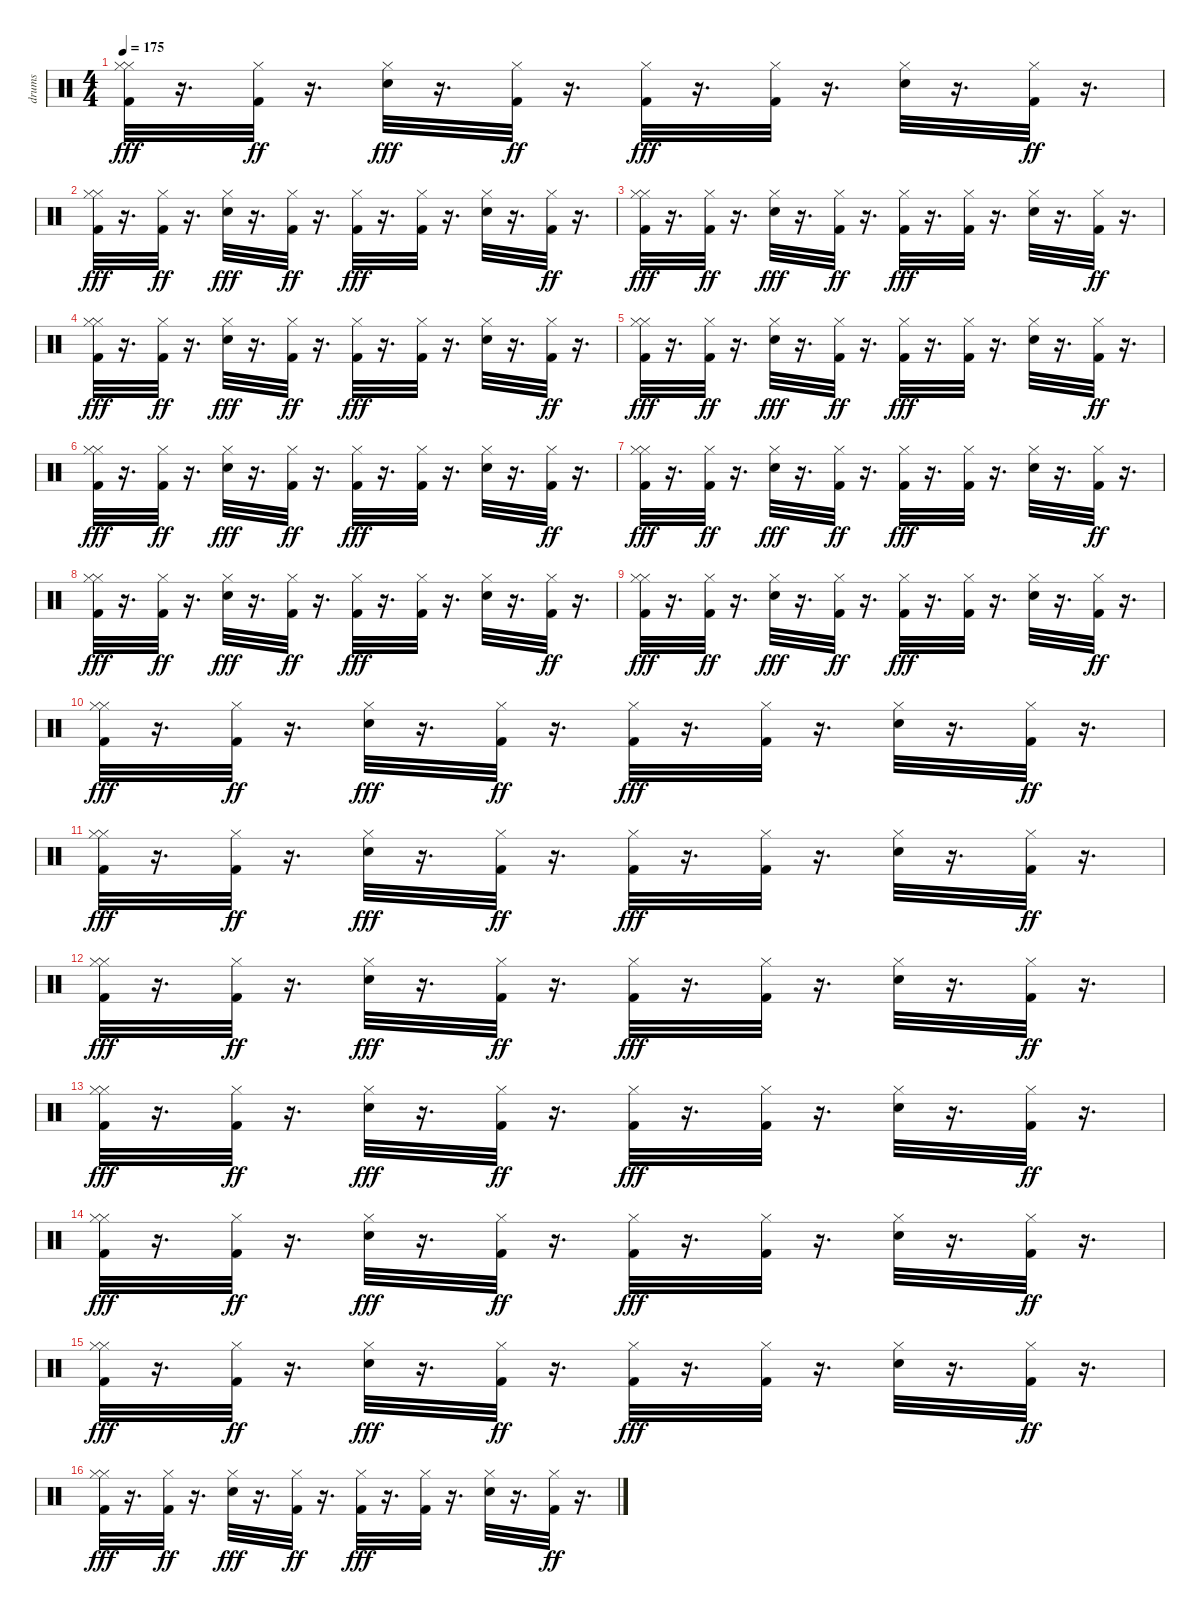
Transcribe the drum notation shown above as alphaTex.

\track ("drums" "drums") {instrument percussion}
\staff {score}
\articulation defaults
\ts (4 4)
\tempo 175
\clef neutral
\ks c
("Hi-Hat (closed)" "Hi-Hat (closed)" "Kick (hit) 2").32{dy fff} r.16{d} ("Hi-Hat (closed)" "Kick (hit) 2").32{dy ff} r.16{d} ("Hi-Hat (closed)" "Electric Snare (hit)").32{dy fff} r.16{d} ("Hi-Hat (closed)" "Kick (hit) 2").32{dy ff} r.16{d} ("Hi-Hat (closed)" "Kick (hit) 2").32{dy fff} r.16{d} ("Hi-Hat (closed)" "Kick (hit) 2").32 r.16{d} ("Hi-Hat (closed)" "Electric Snare (hit)").32 r.16{d} ("Hi-Hat (closed)" "Kick (hit) 2").32{dy ff} r.16{d} |
("Hi-Hat (closed)" "Hi-Hat (closed)" "Kick (hit) 2").32{dy fff} r.16{d} ("Hi-Hat (closed)" "Kick (hit) 2").32{dy ff} r.16{d} ("Hi-Hat (closed)" "Electric Snare (hit)").32{dy fff} r.16{d} ("Hi-Hat (closed)" "Kick (hit) 2").32{dy ff} r.16{d} ("Hi-Hat (closed)" "Kick (hit) 2").32{dy fff} r.16{d} ("Hi-Hat (closed)" "Kick (hit) 2").32 r.16{d} ("Hi-Hat (closed)" "Electric Snare (hit)").32 r.16{d} ("Hi-Hat (closed)" "Kick (hit) 2").32{dy ff} r.16{d} |
("Hi-Hat (closed)" "Hi-Hat (closed)" "Kick (hit) 2").32{dy fff} r.16{d} ("Hi-Hat (closed)" "Kick (hit) 2").32{dy ff} r.16{d} ("Hi-Hat (closed)" "Electric Snare (hit)").32{dy fff} r.16{d} ("Hi-Hat (closed)" "Kick (hit) 2").32{dy ff} r.16{d} ("Hi-Hat (closed)" "Kick (hit) 2").32{dy fff} r.16{d} ("Hi-Hat (closed)" "Kick (hit) 2").32 r.16{d} ("Hi-Hat (closed)" "Electric Snare (hit)").32 r.16{d} ("Hi-Hat (closed)" "Kick (hit) 2").32{dy ff} r.16{d} |
("Hi-Hat (closed)" "Hi-Hat (closed)" "Kick (hit) 2").32{dy fff} r.16{d} ("Hi-Hat (closed)" "Kick (hit) 2").32{dy ff} r.16{d} ("Hi-Hat (closed)" "Electric Snare (hit)").32{dy fff} r.16{d} ("Hi-Hat (closed)" "Kick (hit) 2").32{dy ff} r.16{d} ("Hi-Hat (closed)" "Kick (hit) 2").32{dy fff} r.16{d} ("Hi-Hat (closed)" "Kick (hit) 2").32 r.16{d} ("Hi-Hat (closed)" "Electric Snare (hit)").32 r.16{d} ("Hi-Hat (closed)" "Kick (hit) 2").32{dy ff} r.16{d} |
("Hi-Hat (closed)" "Hi-Hat (closed)" "Kick (hit) 2").32{dy fff} r.16{d} ("Hi-Hat (closed)" "Kick (hit) 2").32{dy ff} r.16{d} ("Hi-Hat (closed)" "Electric Snare (hit)").32{dy fff} r.16{d} ("Hi-Hat (closed)" "Kick (hit) 2").32{dy ff} r.16{d} ("Hi-Hat (closed)" "Kick (hit) 2").32{dy fff} r.16{d} ("Hi-Hat (closed)" "Kick (hit) 2").32 r.16{d} ("Hi-Hat (closed)" "Electric Snare (hit)").32 r.16{d} ("Hi-Hat (closed)" "Kick (hit) 2").32{dy ff} r.16{d} |
("Hi-Hat (closed)" "Hi-Hat (closed)" "Kick (hit) 2").32{dy fff} r.16{d} ("Hi-Hat (closed)" "Kick (hit) 2").32{dy ff} r.16{d} ("Hi-Hat (closed)" "Electric Snare (hit)").32{dy fff} r.16{d} ("Hi-Hat (closed)" "Kick (hit) 2").32{dy ff} r.16{d} ("Hi-Hat (closed)" "Kick (hit) 2").32{dy fff} r.16{d} ("Hi-Hat (closed)" "Kick (hit) 2").32 r.16{d} ("Hi-Hat (closed)" "Electric Snare (hit)").32 r.16{d} ("Hi-Hat (closed)" "Kick (hit) 2").32{dy ff} r.16{d} |
("Hi-Hat (closed)" "Hi-Hat (closed)" "Kick (hit) 2").32{dy fff} r.16{d} ("Hi-Hat (closed)" "Kick (hit) 2").32{dy ff} r.16{d} ("Hi-Hat (closed)" "Electric Snare (hit)").32{dy fff} r.16{d} ("Hi-Hat (closed)" "Kick (hit) 2").32{dy ff} r.16{d} ("Hi-Hat (closed)" "Kick (hit) 2").32{dy fff} r.16{d} ("Hi-Hat (closed)" "Kick (hit) 2").32 r.16{d} ("Hi-Hat (closed)" "Electric Snare (hit)").32 r.16{d} ("Hi-Hat (closed)" "Kick (hit) 2").32{dy ff} r.16{d} |
("Hi-Hat (closed)" "Hi-Hat (closed)" "Kick (hit) 2").32{dy fff} r.16{d} ("Hi-Hat (closed)" "Kick (hit) 2").32{dy ff} r.16{d} ("Hi-Hat (closed)" "Electric Snare (hit)").32{dy fff} r.16{d} ("Hi-Hat (closed)" "Kick (hit) 2").32{dy ff} r.16{d} ("Hi-Hat (closed)" "Kick (hit) 2").32{dy fff} r.16{d} ("Hi-Hat (closed)" "Kick (hit) 2").32 r.16{d} ("Hi-Hat (closed)" "Electric Snare (hit)").32 r.16{d} ("Hi-Hat (closed)" "Kick (hit) 2").32{dy ff} r.16{d} |
("Hi-Hat (closed)" "Hi-Hat (closed)" "Kick (hit) 2").32{dy fff} r.16{d} ("Hi-Hat (closed)" "Kick (hit) 2").32{dy ff} r.16{d} ("Hi-Hat (closed)" "Electric Snare (hit)").32{dy fff} r.16{d} ("Hi-Hat (closed)" "Kick (hit) 2").32{dy ff} r.16{d} ("Hi-Hat (closed)" "Kick (hit) 2").32{dy fff} r.16{d} ("Hi-Hat (closed)" "Kick (hit) 2").32 r.16{d} ("Hi-Hat (closed)" "Electric Snare (hit)").32 r.16{d} ("Hi-Hat (closed)" "Kick (hit) 2").32{dy ff} r.16{d} |
("Hi-Hat (closed)" "Hi-Hat (closed)" "Kick (hit) 2").32{dy fff} r.16{d} ("Hi-Hat (closed)" "Kick (hit) 2").32{dy ff} r.16{d} ("Hi-Hat (closed)" "Electric Snare (hit)").32{dy fff} r.16{d} ("Hi-Hat (closed)" "Kick (hit) 2").32{dy ff} r.16{d} ("Hi-Hat (closed)" "Kick (hit) 2").32{dy fff} r.16{d} ("Hi-Hat (closed)" "Kick (hit) 2").32 r.16{d} ("Hi-Hat (closed)" "Electric Snare (hit)").32 r.16{d} ("Hi-Hat (closed)" "Kick (hit) 2").32{dy ff} r.16{d} |
("Hi-Hat (closed)" "Hi-Hat (closed)" "Kick (hit) 2").32{dy fff} r.16{d} ("Hi-Hat (closed)" "Kick (hit) 2").32{dy ff} r.16{d} ("Hi-Hat (closed)" "Electric Snare (hit)").32{dy fff} r.16{d} ("Hi-Hat (closed)" "Kick (hit) 2").32{dy ff} r.16{d} ("Hi-Hat (closed)" "Kick (hit) 2").32{dy fff} r.16{d} ("Hi-Hat (closed)" "Kick (hit) 2").32 r.16{d} ("Hi-Hat (closed)" "Electric Snare (hit)").32 r.16{d} ("Hi-Hat (closed)" "Kick (hit) 2").32{dy ff} r.16{d} |
("Hi-Hat (closed)" "Hi-Hat (closed)" "Kick (hit) 2").32{dy fff} r.16{d} ("Hi-Hat (closed)" "Kick (hit) 2").32{dy ff} r.16{d} ("Hi-Hat (closed)" "Electric Snare (hit)").32{dy fff} r.16{d} ("Hi-Hat (closed)" "Kick (hit) 2").32{dy ff} r.16{d} ("Hi-Hat (closed)" "Kick (hit) 2").32{dy fff} r.16{d} ("Hi-Hat (closed)" "Kick (hit) 2").32 r.16{d} ("Hi-Hat (closed)" "Electric Snare (hit)").32 r.16{d} ("Hi-Hat (closed)" "Kick (hit) 2").32{dy ff} r.16{d} |
("Hi-Hat (closed)" "Hi-Hat (closed)" "Kick (hit) 2").32{dy fff} r.16{d} ("Hi-Hat (closed)" "Kick (hit) 2").32{dy ff} r.16{d} ("Hi-Hat (closed)" "Electric Snare (hit)").32{dy fff} r.16{d} ("Hi-Hat (closed)" "Kick (hit) 2").32{dy ff} r.16{d} ("Hi-Hat (closed)" "Kick (hit) 2").32{dy fff} r.16{d} ("Hi-Hat (closed)" "Kick (hit) 2").32 r.16{d} ("Hi-Hat (closed)" "Electric Snare (hit)").32 r.16{d} ("Hi-Hat (closed)" "Kick (hit) 2").32{dy ff} r.16{d} |
("Hi-Hat (closed)" "Hi-Hat (closed)" "Kick (hit) 2").32{dy fff} r.16{d} ("Hi-Hat (closed)" "Kick (hit) 2").32{dy ff} r.16{d} ("Hi-Hat (closed)" "Electric Snare (hit)").32{dy fff} r.16{d} ("Hi-Hat (closed)" "Kick (hit) 2").32{dy ff} r.16{d} ("Hi-Hat (closed)" "Kick (hit) 2").32{dy fff} r.16{d} ("Hi-Hat (closed)" "Kick (hit) 2").32 r.16{d} ("Hi-Hat (closed)" "Electric Snare (hit)").32 r.16{d} ("Hi-Hat (closed)" "Kick (hit) 2").32{dy ff} r.16{d} |
("Hi-Hat (closed)" "Hi-Hat (closed)" "Kick (hit) 2").32{dy fff} r.16{d} ("Hi-Hat (closed)" "Kick (hit) 2").32{dy ff} r.16{d} ("Hi-Hat (closed)" "Electric Snare (hit)").32{dy fff} r.16{d} ("Hi-Hat (closed)" "Kick (hit) 2").32{dy ff} r.16{d} ("Hi-Hat (closed)" "Kick (hit) 2").32{dy fff} r.16{d} ("Hi-Hat (closed)" "Kick (hit) 2").32 r.16{d} ("Hi-Hat (closed)" "Electric Snare (hit)").32 r.16{d} ("Hi-Hat (closed)" "Kick (hit) 2").32{dy ff} r.16{d} |
("Hi-Hat (closed)" "Hi-Hat (closed)" "Kick (hit) 2").32{dy fff} r.16{d} ("Hi-Hat (closed)" "Kick (hit) 2").32{dy ff} r.16{d} ("Hi-Hat (closed)" "Electric Snare (hit)").32{dy fff} r.16{d} ("Hi-Hat (closed)" "Kick (hit) 2").32{dy ff} r.16{d} ("Hi-Hat (closed)" "Kick (hit) 2").32{dy fff} r.16{d} ("Hi-Hat (closed)" "Kick (hit) 2").32 r.16{d} ("Hi-Hat (closed)" "Electric Snare (hit)").32 r.16{d} ("Hi-Hat (closed)" "Kick (hit) 2").32{dy ff} r.16{d}
